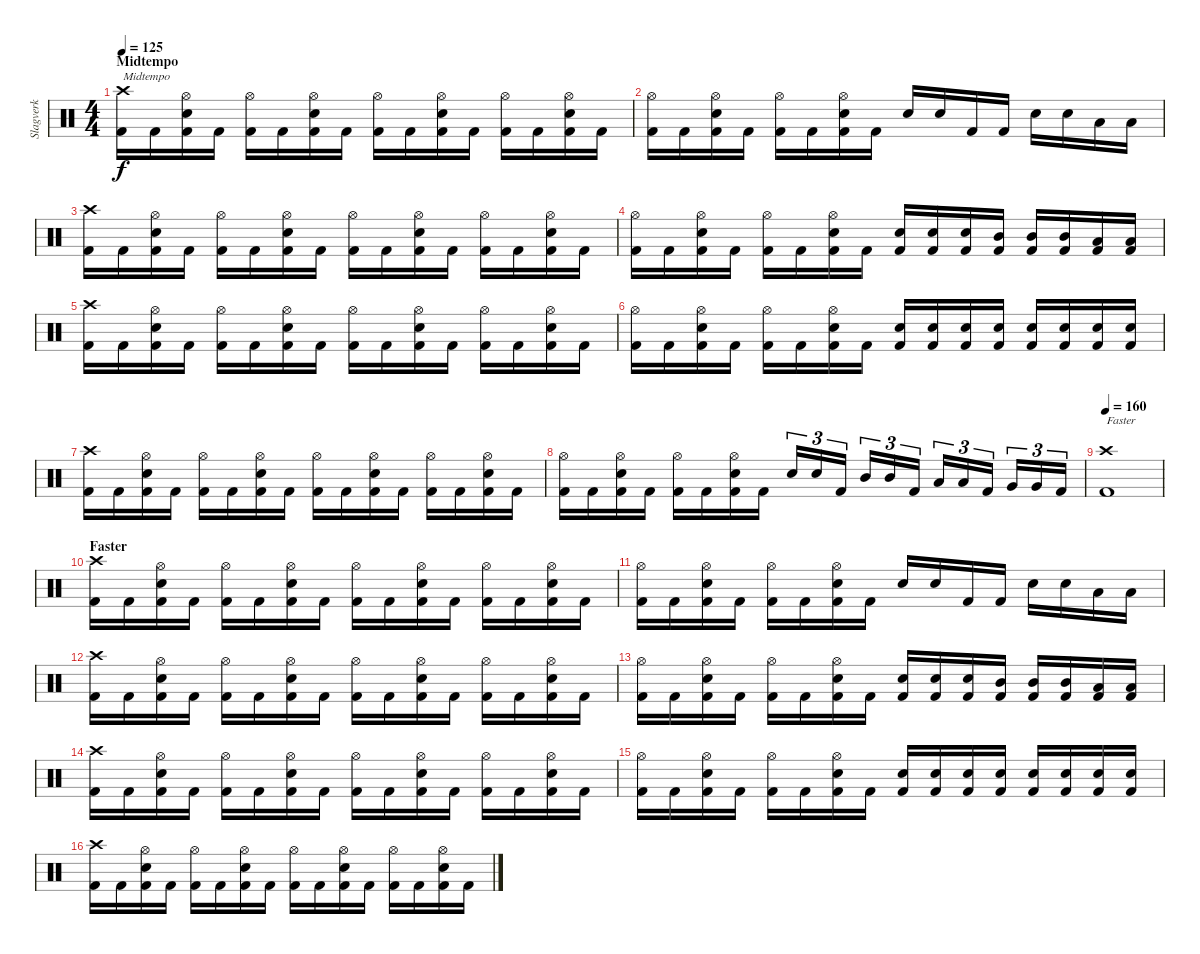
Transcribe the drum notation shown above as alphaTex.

\track ("Slagverk" "Slagverk") {instrument percussion}
\staff {score}
\articulation defaults
\ts (4 4)
\section ("" "Midtempo")
\tempo 125
\clef neutral
\ks c
("Crash high (hit)" "Kick (hit) 2").16{txt "Midtempo" dy f} "Kick (hit) 2".16 ("Hi-Hat (open)" "Snare (hit) 2" "Kick (hit) 2").16 "Kick (hit) 2".16 ("Hi-Hat (open)" "Kick (hit) 2").16 "Kick (hit) 2".16 ("Hi-Hat (open)" "Snare (hit) 2" "Kick (hit) 2").16 "Kick (hit) 2".16 ("Hi-Hat (open)" "Kick (hit) 2").16 "Kick (hit) 2".16 ("Hi-Hat (open)" "Snare (hit) 2" "Kick (hit) 2").16 "Kick (hit) 2".16 ("Hi-Hat (open)" "Kick (hit) 2").16 "Kick (hit) 2".16 ("Hi-Hat (open)" "Snare (hit) 2" "Kick (hit) 2").16 "Kick (hit) 2".16 |
("Hi-Hat (open)" "Kick (hit) 2").16 "Kick (hit) 2".16 ("Hi-Hat (open)" "Snare (hit) 2" "Kick (hit) 2").16 "Kick (hit) 2".16 ("Hi-Hat (open)" "Kick (hit) 2").16 "Kick (hit) 2".16 ("Hi-Hat (open)" "Snare (hit) 2" "Kick (hit) 2").16 "Kick (hit) 2".16 "Snare (hit) 2".16 "Snare (hit) 2".16 "Kick (hit) 2".16 "Kick (hit) 2".16 "Snare (hit) 2".16 "Snare (hit) 2".16 "Low Tom (hit)".16 "Low Tom (hit)".16 |
("Crash high (hit)" "Kick (hit) 2").16 "Kick (hit) 2".16 ("Hi-Hat (open)" "Snare (hit) 2" "Kick (hit) 2").16 "Kick (hit) 2".16 ("Hi-Hat (open)" "Kick (hit) 2").16 "Kick (hit) 2".16 ("Hi-Hat (open)" "Snare (hit) 2" "Kick (hit) 2").16 "Kick (hit) 2".16 ("Hi-Hat (open)" "Kick (hit) 2").16 "Kick (hit) 2".16 ("Hi-Hat (open)" "Snare (hit) 2" "Kick (hit) 2").16 "Kick (hit) 2".16 ("Hi-Hat (open)" "Kick (hit) 2").16 "Kick (hit) 2".16 ("Hi-Hat (open)" "Snare (hit) 2" "Kick (hit) 2").16 "Kick (hit) 2".16 |
("Hi-Hat (open)" "Kick (hit) 2").16 "Kick (hit) 2".16 ("Hi-Hat (open)" "Snare (hit) 2" "Kick (hit) 2").16 "Kick (hit) 2".16 ("Hi-Hat (open)" "Kick (hit) 2").16 "Kick (hit) 2".16 ("Hi-Hat (open)" "Snare (hit) 2" "Kick (hit) 2").16 "Kick (hit) 2".16 ("Snare (hit) 2" "Kick (hit) 2").16 ("Snare (hit) 2" "Kick (hit) 2").16 ("Snare (hit) 2" "Kick (hit) 2").16 ("Mid Tom (hit)" "Kick (hit) 2").16 ("Mid Tom (hit)" "Kick (hit) 2").16 ("Mid Tom (hit)" "Kick (hit) 2").16 ("Low Tom (hit)" "Kick (hit) 2").16 ("Low Tom (hit)" "Kick (hit) 2").16 |
("Crash high (hit)" "Kick (hit) 2").16 "Kick (hit) 2".16 ("Hi-Hat (open)" "Snare (hit) 2" "Kick (hit) 2").16 "Kick (hit) 2".16 ("Hi-Hat (open)" "Kick (hit) 2").16 "Kick (hit) 2".16 ("Hi-Hat (open)" "Snare (hit) 2" "Kick (hit) 2").16 "Kick (hit) 2".16 ("Hi-Hat (open)" "Kick (hit) 2").16 "Kick (hit) 2".16 ("Hi-Hat (open)" "Snare (hit) 2" "Kick (hit) 2").16 "Kick (hit) 2".16 ("Hi-Hat (open)" "Kick (hit) 2").16 "Kick (hit) 2".16 ("Hi-Hat (open)" "Snare (hit) 2" "Kick (hit) 2").16 "Kick (hit) 2".16 |
("Hi-Hat (open)" "Kick (hit) 2").16 "Kick (hit) 2".16 ("Hi-Hat (open)" "Snare (hit) 2" "Kick (hit) 2").16 "Kick (hit) 2".16 ("Hi-Hat (open)" "Kick (hit) 2").16 "Kick (hit) 2".16 ("Hi-Hat (open)" "Snare (hit) 2" "Kick (hit) 2").16 "Kick (hit) 2".16 ("Snare (hit) 2" "Kick (hit) 2").16 ("Snare (hit) 2" "Kick (hit) 2").16 ("Snare (hit) 2" "Kick (hit) 2").16 ("Snare (hit) 2" "Kick (hit) 2").16 ("Snare (hit) 2" "Kick (hit) 2").16 ("Snare (hit) 2" "Kick (hit) 2").16 ("Snare (hit) 2" "Kick (hit) 2").16 ("Snare (hit) 2" "Kick (hit) 2").16 |
("Crash high (hit)" "Kick (hit) 2").16 "Kick (hit) 2".16 ("Hi-Hat (open)" "Snare (hit) 2" "Kick (hit) 2").16 "Kick (hit) 2".16 ("Hi-Hat (open)" "Kick (hit) 2").16 "Kick (hit) 2".16 ("Hi-Hat (open)" "Snare (hit) 2" "Kick (hit) 2").16 "Kick (hit) 2".16 ("Hi-Hat (open)" "Kick (hit) 2").16 "Kick (hit) 2".16 ("Hi-Hat (open)" "Snare (hit) 2" "Kick (hit) 2").16 "Kick (hit) 2".16 ("Hi-Hat (open)" "Kick (hit) 2").16 "Kick (hit) 2".16 ("Hi-Hat (open)" "Snare (hit) 2" "Kick (hit) 2").16 "Kick (hit) 2".16 |
("Hi-Hat (open)" "Kick (hit) 2").16 "Kick (hit) 2".16 ("Hi-Hat (open)" "Snare (hit) 2" "Kick (hit) 2").16 "Kick (hit) 2".16 ("Hi-Hat (open)" "Kick (hit) 2").16 "Kick (hit) 2".16 ("Hi-Hat (open)" "Snare (hit) 2" "Kick (hit) 2").16 "Kick (hit) 2".16 "Snare (hit) 2".16{tu (3 2)} "Snare (hit) 2".16{tu (3 2)} "Kick (hit) 2".16{tu (3 2)} "Mid Tom (hit)".16{tu (3 2)} "Mid Tom (hit)".16{tu (3 2)} "Kick (hit) 2".16{tu (3 2)} "Low Tom (hit)".16{tu (3 2)} "Low Tom (hit)".16{tu (3 2)} "Kick (hit) 2".16{tu (3 2)} "Very Low Tom (hit)".16{tu (3 2)} "Very Low Tom (hit)".16{tu (3 2)} "Kick (hit) 2".16{tu (3 2)} |
\tempo 160
("Crash high (hit)" "Kick (hit) 2").1{txt "Faster"} |
\section ("" "Faster")
("Crash high (hit)" "Kick (hit) 2").16 "Kick (hit) 2".16 ("Hi-Hat (open)" "Snare (hit) 2" "Kick (hit) 2").16 "Kick (hit) 2".16 ("Hi-Hat (open)" "Kick (hit) 2").16 "Kick (hit) 2".16 ("Hi-Hat (open)" "Snare (hit) 2" "Kick (hit) 2").16 "Kick (hit) 2".16 ("Hi-Hat (open)" "Kick (hit) 2").16 "Kick (hit) 2".16 ("Hi-Hat (open)" "Snare (hit) 2" "Kick (hit) 2").16 "Kick (hit) 2".16 ("Hi-Hat (open)" "Kick (hit) 2").16 "Kick (hit) 2".16 ("Hi-Hat (open)" "Snare (hit) 2" "Kick (hit) 2").16 "Kick (hit) 2".16 |
("Hi-Hat (open)" "Kick (hit) 2").16 "Kick (hit) 2".16 ("Hi-Hat (open)" "Snare (hit) 2" "Kick (hit) 2").16 "Kick (hit) 2".16 ("Hi-Hat (open)" "Kick (hit) 2").16 "Kick (hit) 2".16 ("Hi-Hat (open)" "Snare (hit) 2" "Kick (hit) 2").16 "Kick (hit) 2".16 "Snare (hit) 2".16 "Snare (hit) 2".16 "Kick (hit) 2".16 "Kick (hit) 2".16 "Snare (hit) 2".16 "Snare (hit) 2".16 "Low Tom (hit)".16 "Low Tom (hit)".16 |
("Crash high (hit)" "Kick (hit) 2").16 "Kick (hit) 2".16 ("Hi-Hat (open)" "Snare (hit) 2" "Kick (hit) 2").16 "Kick (hit) 2".16 ("Hi-Hat (open)" "Kick (hit) 2").16 "Kick (hit) 2".16 ("Hi-Hat (open)" "Snare (hit) 2" "Kick (hit) 2").16 "Kick (hit) 2".16 ("Hi-Hat (open)" "Kick (hit) 2").16 "Kick (hit) 2".16 ("Hi-Hat (open)" "Snare (hit) 2" "Kick (hit) 2").16 "Kick (hit) 2".16 ("Hi-Hat (open)" "Kick (hit) 2").16 "Kick (hit) 2".16 ("Hi-Hat (open)" "Snare (hit) 2" "Kick (hit) 2").16 "Kick (hit) 2".16 |
("Hi-Hat (open)" "Kick (hit) 2").16 "Kick (hit) 2".16 ("Hi-Hat (open)" "Snare (hit) 2" "Kick (hit) 2").16 "Kick (hit) 2".16 ("Hi-Hat (open)" "Kick (hit) 2").16 "Kick (hit) 2".16 ("Hi-Hat (open)" "Snare (hit) 2" "Kick (hit) 2").16 "Kick (hit) 2".16 ("Snare (hit) 2" "Kick (hit) 2").16 ("Snare (hit) 2" "Kick (hit) 2").16 ("Snare (hit) 2" "Kick (hit) 2").16 ("Mid Tom (hit)" "Kick (hit) 2").16 ("Mid Tom (hit)" "Kick (hit) 2").16 ("Mid Tom (hit)" "Kick (hit) 2").16 ("Low Tom (hit)" "Kick (hit) 2").16 ("Low Tom (hit)" "Kick (hit) 2").16 |
("Crash high (hit)" "Kick (hit) 2").16 "Kick (hit) 2".16 ("Hi-Hat (open)" "Snare (hit) 2" "Kick (hit) 2").16 "Kick (hit) 2".16 ("Hi-Hat (open)" "Kick (hit) 2").16 "Kick (hit) 2".16 ("Hi-Hat (open)" "Snare (hit) 2" "Kick (hit) 2").16 "Kick (hit) 2".16 ("Hi-Hat (open)" "Kick (hit) 2").16 "Kick (hit) 2".16 ("Hi-Hat (open)" "Snare (hit) 2" "Kick (hit) 2").16 "Kick (hit) 2".16 ("Hi-Hat (open)" "Kick (hit) 2").16 "Kick (hit) 2".16 ("Hi-Hat (open)" "Snare (hit) 2" "Kick (hit) 2").16 "Kick (hit) 2".16 |
("Hi-Hat (open)" "Kick (hit) 2").16 "Kick (hit) 2".16 ("Hi-Hat (open)" "Snare (hit) 2" "Kick (hit) 2").16 "Kick (hit) 2".16 ("Hi-Hat (open)" "Kick (hit) 2").16 "Kick (hit) 2".16 ("Hi-Hat (open)" "Snare (hit) 2" "Kick (hit) 2").16 "Kick (hit) 2".16 ("Snare (hit) 2" "Kick (hit) 2").16 ("Snare (hit) 2" "Kick (hit) 2").16 ("Snare (hit) 2" "Kick (hit) 2").16 ("Snare (hit) 2" "Kick (hit) 2").16 ("Snare (hit) 2" "Kick (hit) 2").16 ("Snare (hit) 2" "Kick (hit) 2").16 ("Snare (hit) 2" "Kick (hit) 2").16 ("Snare (hit) 2" "Kick (hit) 2").16 |
("Crash high (hit)" "Kick (hit) 2").16 "Kick (hit) 2".16 ("Hi-Hat (open)" "Snare (hit) 2" "Kick (hit) 2").16 "Kick (hit) 2".16 ("Hi-Hat (open)" "Kick (hit) 2").16 "Kick (hit) 2".16 ("Hi-Hat (open)" "Snare (hit) 2" "Kick (hit) 2").16 "Kick (hit) 2".16 ("Hi-Hat (open)" "Kick (hit) 2").16 "Kick (hit) 2".16 ("Hi-Hat (open)" "Snare (hit) 2" "Kick (hit) 2").16 "Kick (hit) 2".16 ("Hi-Hat (open)" "Kick (hit) 2").16 "Kick (hit) 2".16 ("Hi-Hat (open)" "Snare (hit) 2" "Kick (hit) 2").16 "Kick (hit) 2".16
